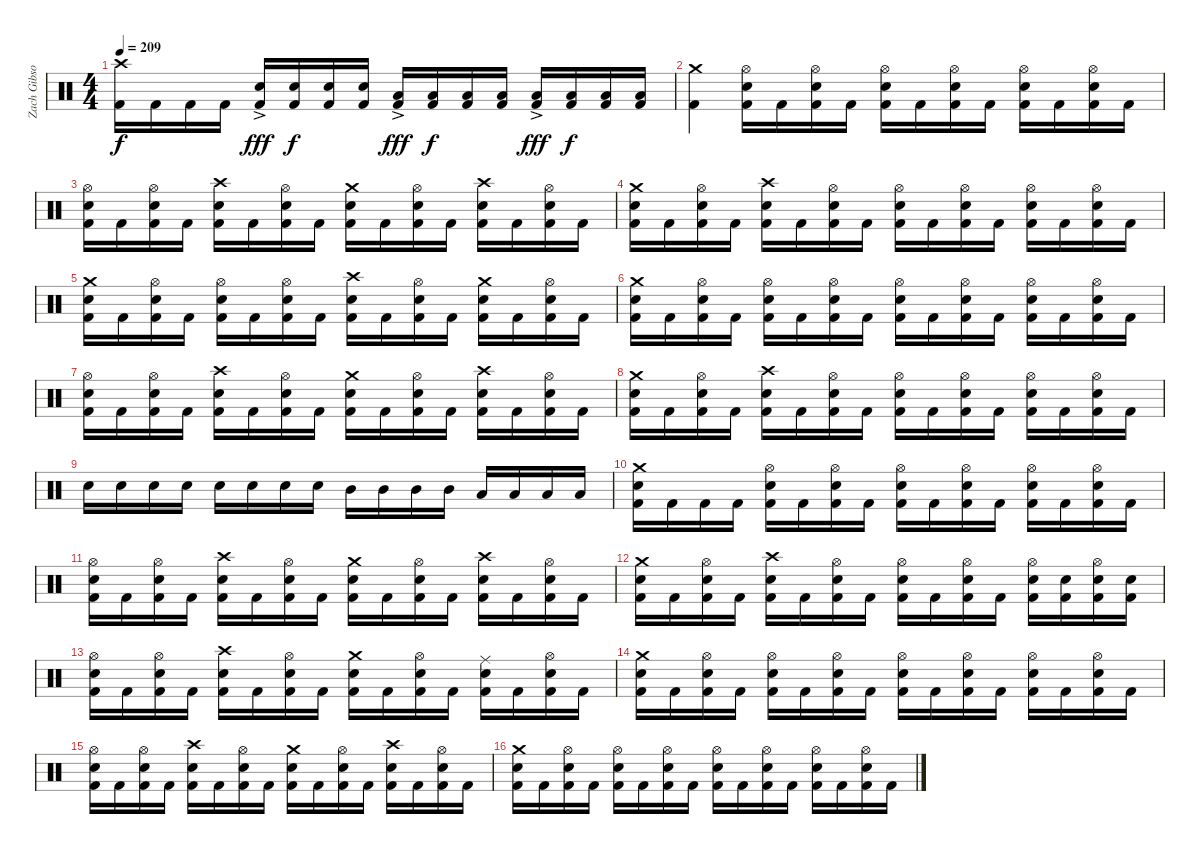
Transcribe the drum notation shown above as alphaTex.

\track ("Zach Gibson (Drums)" "Zach Gibso") {instrument percussion}
\staff {score}
\articulation defaults
\ts (4 4)
\tempo 209
\clef neutral
\ks c
("Crash high (hit)" "Kick (hit) 2").16{dy f} "Kick (hit) 2".16 "Kick (hit) 2".16 "Kick (hit) 2".16 ("Snare (hit) 2" "Kick (hit) 2"{ac}).16{dy fff} ("Snare (hit) 2" "Kick (hit) 2").16{dy f} ("Snare (hit) 2" "Kick (hit) 2").16 ("Snare (hit) 2" "Kick (hit) 2").16 ("Low Tom (hit)" "Kick (hit) 2"{ac}).16{dy fff} ("Low Tom (hit)" "Kick (hit) 2").16{dy f} ("Low Tom (hit)" "Kick (hit) 2").16 ("Low Tom (hit)" "Kick (hit) 2").16 ("Low Floor Tom (hit)" "Kick (hit) 2"{ac}).16{dy fff} ("Low Floor Tom (hit)" "Kick (hit) 2").16{dy f} ("Low Floor Tom (hit)" "Kick (hit) 2").16 ("Low Floor Tom (hit)" "Kick (hit) 2").16 |
("Crash medium (hit)" "Kick (hit) 2").4 ("Hi-Hat (open)" "Snare (hit) 2" "Kick (hit) 2").16 "Kick (hit) 2".16 ("Hi-Hat (open)" "Snare (hit) 2" "Kick (hit) 2").16 "Kick (hit) 2".16 ("Hi-Hat (open)" "Snare (hit) 2" "Kick (hit) 2").16 "Kick (hit) 2".16 ("Hi-Hat (open)" "Snare (hit) 2" "Kick (hit) 2").16 "Kick (hit) 2".16 ("Hi-Hat (open)" "Snare (hit) 2" "Kick (hit) 2").16 "Kick (hit) 2".16 ("Hi-Hat (open)" "Snare (hit) 2" "Kick (hit) 2").16 "Kick (hit) 2".16 |
("Hi-Hat (open)" "Snare (hit) 2" "Kick (hit) 2").16 "Kick (hit) 2".16 ("Hi-Hat (open)" "Snare (hit) 2" "Kick (hit) 2").16 "Kick (hit) 2".16 ("Crash high (hit)" "Snare (hit) 2" "Kick (hit) 2").16 "Kick (hit) 2".16 ("Hi-Hat (open)" "Snare (hit) 2" "Kick (hit) 2").16 "Kick (hit) 2".16 ("Crash medium (hit)" "Snare (hit) 2" "Kick (hit) 2").16 "Kick (hit) 2".16 ("Hi-Hat (open)" "Snare (hit) 2" "Kick (hit) 2").16 "Kick (hit) 2".16 ("Crash high (hit)" "Snare (hit) 2" "Kick (hit) 2").16 "Kick (hit) 2".16 ("Hi-Hat (open)" "Snare (hit) 2" "Kick (hit) 2").16 "Kick (hit) 2".16 |
("Crash medium (hit)" "Snare (hit) 2" "Kick (hit) 2").16 "Kick (hit) 2".16 ("Hi-Hat (open)" "Snare (hit) 2" "Kick (hit) 2").16 "Kick (hit) 2".16 ("Crash high (hit)" "Snare (hit) 2" "Kick (hit) 2").16 "Kick (hit) 2".16 ("Hi-Hat (open)" "Snare (hit) 2" "Kick (hit) 2").16 "Kick (hit) 2".16 ("Hi-Hat (open)" "Snare (hit) 2" "Kick (hit) 2").16 "Kick (hit) 2".16 ("Hi-Hat (open)" "Snare (hit) 2" "Kick (hit) 2").16 "Kick (hit) 2".16 ("Hi-Hat (open)" "Snare (hit) 2" "Kick (hit) 2").16 "Kick (hit) 2".16 ("Hi-Hat (open)" "Snare (hit) 2" "Kick (hit) 2").16 "Kick (hit) 2".16 |
("Crash medium (hit)" "Snare (hit) 2" "Kick (hit) 2").16 "Kick (hit) 2".16 ("Hi-Hat (open)" "Snare (hit) 2" "Kick (hit) 2").16 "Kick (hit) 2".16 ("Hi-Hat (open)" "Snare (hit) 2" "Kick (hit) 2").16 "Kick (hit) 2".16 ("Hi-Hat (open)" "Snare (hit) 2" "Kick (hit) 2").16 "Kick (hit) 2".16 ("Crash high (hit)" "Snare (hit) 2" "Kick (hit) 2").16 "Kick (hit) 2".16 ("Hi-Hat (open)" "Snare (hit) 2" "Kick (hit) 2").16 "Kick (hit) 2".16 ("Crash medium (hit)" "Snare (hit) 2" "Kick (hit) 2").16 "Kick (hit) 2".16 ("Hi-Hat (open)" "Snare (hit) 2" "Kick (hit) 2").16 "Kick (hit) 2".16 |
("Crash medium (hit)" "Snare (hit) 2" "Kick (hit) 2").16 "Kick (hit) 2".16 ("Hi-Hat (open)" "Snare (hit) 2" "Kick (hit) 2").16 "Kick (hit) 2".16 ("Hi-Hat (open)" "Snare (hit) 2" "Kick (hit) 2").16 "Kick (hit) 2".16 ("Hi-Hat (open)" "Snare (hit) 2" "Kick (hit) 2").16 "Kick (hit) 2".16 ("Hi-Hat (open)" "Snare (hit) 2" "Kick (hit) 2").16 "Kick (hit) 2".16 ("Hi-Hat (open)" "Snare (hit) 2" "Kick (hit) 2").16 "Kick (hit) 2".16 ("Hi-Hat (open)" "Snare (hit) 2" "Kick (hit) 2").16 "Kick (hit) 2".16 ("Hi-Hat (open)" "Snare (hit) 2" "Kick (hit) 2").16 "Kick (hit) 2".16 |
("Hi-Hat (open)" "Snare (hit) 2" "Kick (hit) 2").16 "Kick (hit) 2".16 ("Hi-Hat (open)" "Snare (hit) 2" "Kick (hit) 2").16 "Kick (hit) 2".16 ("Crash high (hit)" "Snare (hit) 2" "Kick (hit) 2").16 "Kick (hit) 2".16 ("Hi-Hat (open)" "Snare (hit) 2" "Kick (hit) 2").16 "Kick (hit) 2".16 ("Crash medium (hit)" "Snare (hit) 2" "Kick (hit) 2").16 "Kick (hit) 2".16 ("Hi-Hat (open)" "Snare (hit) 2" "Kick (hit) 2").16 "Kick (hit) 2".16 ("Crash high (hit)" "Snare (hit) 2" "Kick (hit) 2").16 "Kick (hit) 2".16 ("Hi-Hat (open)" "Snare (hit) 2" "Kick (hit) 2").16 "Kick (hit) 2".16 |
("Crash medium (hit)" "Snare (hit) 2" "Kick (hit) 2").16 "Kick (hit) 2".16 ("Hi-Hat (open)" "Snare (hit) 2" "Kick (hit) 2").16 "Kick (hit) 2".16 ("Crash high (hit)" "Snare (hit) 2" "Kick (hit) 2").16 "Kick (hit) 2".16 ("Hi-Hat (open)" "Snare (hit) 2" "Kick (hit) 2").16 "Kick (hit) 2".16 ("Hi-Hat (open)" "Snare (hit) 2" "Kick (hit) 2").16 "Kick (hit) 2".16 ("Hi-Hat (open)" "Snare (hit) 2" "Kick (hit) 2").16 "Kick (hit) 2".16 ("Hi-Hat (open)" "Snare (hit) 2" "Kick (hit) 2").16 "Kick (hit) 2".16 ("Hi-Hat (open)" "Snare (hit) 2" "Kick (hit) 2").16 "Kick (hit) 2".16 |
"Snare (hit) 2".16 "Snare (hit) 2".16 "Snare (hit) 2".16 "Snare (hit) 2".16 "Snare (hit) 2".16 "Snare (hit) 2".16 "Snare (hit) 2".16 "Snare (hit) 2".16 "Mid Tom (hit)".16 "Mid Tom (hit)".16 "Mid Tom (hit)".16 "Mid Tom (hit)".16 "Low Floor Tom (hit)".16 "Low Floor Tom (hit)".16 "Low Floor Tom (hit)".16 "Low Floor Tom (hit)".16 |
("Crash medium (hit)" "Snare (hit) 2" "Kick (hit) 2").16 "Kick (hit) 2".16 "Kick (hit) 2".16 "Kick (hit) 2".16 ("Hi-Hat (open)" "Snare (hit) 2" "Kick (hit) 2").16 "Kick (hit) 2".16 ("Hi-Hat (open)" "Snare (hit) 2" "Kick (hit) 2").16 "Kick (hit) 2".16 ("Hi-Hat (open)" "Snare (hit) 2" "Kick (hit) 2").16 "Kick (hit) 2".16 ("Hi-Hat (open)" "Snare (hit) 2" "Kick (hit) 2").16 "Kick (hit) 2".16 ("Hi-Hat (open)" "Snare (hit) 2" "Kick (hit) 2").16 "Kick (hit) 2".16 ("Hi-Hat (open)" "Snare (hit) 2" "Kick (hit) 2").16 "Kick (hit) 2".16 |
("Hi-Hat (open)" "Snare (hit) 2" "Kick (hit) 2").16 "Kick (hit) 2".16 ("Hi-Hat (open)" "Snare (hit) 2" "Kick (hit) 2").16 "Kick (hit) 2".16 ("Crash high (hit)" "Snare (hit) 2" "Kick (hit) 2").16 "Kick (hit) 2".16 ("Hi-Hat (open)" "Snare (hit) 2" "Kick (hit) 2").16 "Kick (hit) 2".16 ("Crash medium (hit)" "Snare (hit) 2" "Kick (hit) 2").16 "Kick (hit) 2".16 ("Hi-Hat (open)" "Snare (hit) 2" "Kick (hit) 2").16 "Kick (hit) 2".16 ("Crash high (hit)" "Snare (hit) 2" "Kick (hit) 2").16 "Kick (hit) 2".16 ("Hi-Hat (open)" "Snare (hit) 2" "Kick (hit) 2").16 "Kick (hit) 2".16 |
("Crash medium (hit)" "Snare (hit) 2" "Kick (hit) 2").16 "Kick (hit) 2".16 ("Hi-Hat (open)" "Snare (hit) 2" "Kick (hit) 2").16 "Kick (hit) 2".16 ("Crash high (hit)" "Snare (hit) 2" "Kick (hit) 2").16 "Kick (hit) 2".16 ("Hi-Hat (open)" "Snare (hit) 2" "Kick (hit) 2").16 "Kick (hit) 2".16 ("Hi-Hat (open)" "Snare (hit) 2" "Kick (hit) 2").16 "Kick (hit) 2".16 ("Hi-Hat (open)" "Snare (hit) 2" "Kick (hit) 2").16 "Kick (hit) 2".16 ("Hi-Hat (open)" "Snare (hit) 2" "Kick (hit) 2").16 ("Snare (hit) 2" "Kick (hit) 2").16 ("Hi-Hat (open)" "Snare (hit) 2" "Kick (hit) 2").16 ("Snare (hit) 2" "Kick (hit) 2").16 |
("Hi-Hat (open)" "Snare (hit) 2" "Kick (hit) 2").16 "Kick (hit) 2".16 ("Hi-Hat (open)" "Snare (hit) 2" "Kick (hit) 2").16 "Kick (hit) 2".16 ("Crash high (hit)" "Snare (hit) 2" "Kick (hit) 2").16 "Kick (hit) 2".16 ("Hi-Hat (open)" "Snare (hit) 2" "Kick (hit) 2").16 "Kick (hit) 2".16 ("Crash medium (hit)" "Snare (hit) 2" "Kick (hit) 2").16 "Kick (hit) 2".16 ("Hi-Hat (open)" "Snare (hit) 2" "Kick (hit) 2").16 "Kick (hit) 2".16 ("Ride (middle)" "Snare (hit) 2" "Kick (hit) 2").16 "Kick (hit) 2".16 ("Hi-Hat (open)" "Snare (hit) 2" "Kick (hit) 2").16 "Kick (hit) 2".16 |
("Crash medium (hit)" "Snare (hit) 2" "Kick (hit) 2").16 "Kick (hit) 2".16 ("Hi-Hat (open)" "Snare (hit) 2" "Kick (hit) 2").16 "Kick (hit) 2".16 ("Hi-Hat (open)" "Snare (hit) 2" "Kick (hit) 2").16 "Kick (hit) 2".16 ("Hi-Hat (open)" "Snare (hit) 2" "Kick (hit) 2").16 "Kick (hit) 2".16 ("Hi-Hat (open)" "Snare (hit) 2" "Kick (hit) 2").16 "Kick (hit) 2".16 ("Hi-Hat (open)" "Snare (hit) 2" "Kick (hit) 2").16 "Kick (hit) 2".16 ("Hi-Hat (open)" "Snare (hit) 2" "Kick (hit) 2").16 "Kick (hit) 2".16 ("Hi-Hat (open)" "Snare (hit) 2" "Kick (hit) 2").16 "Kick (hit) 2".16 |
("Hi-Hat (open)" "Snare (hit) 2" "Kick (hit) 2").16 "Kick (hit) 2".16 ("Hi-Hat (open)" "Snare (hit) 2" "Kick (hit) 2").16 "Kick (hit) 2".16 ("Crash high (hit)" "Snare (hit) 2" "Kick (hit) 2").16 "Kick (hit) 2".16 ("Hi-Hat (open)" "Snare (hit) 2" "Kick (hit) 2").16 "Kick (hit) 2".16 ("Crash medium (hit)" "Snare (hit) 2" "Kick (hit) 2").16 "Kick (hit) 2".16 ("Hi-Hat (open)" "Snare (hit) 2" "Kick (hit) 2").16 "Kick (hit) 2".16 ("Crash high (hit)" "Snare (hit) 2" "Kick (hit) 2").16 "Kick (hit) 2".16 ("Hi-Hat (open)" "Snare (hit) 2" "Kick (hit) 2").16 "Kick (hit) 2".16 |
("Crash medium (hit)" "Snare (hit) 2" "Kick (hit) 2").16 "Kick (hit) 2".16 ("Hi-Hat (open)" "Snare (hit) 2" "Kick (hit) 2").16 "Kick (hit) 2".16 ("Hi-Hat (open)" "Snare (hit) 2" "Kick (hit) 2").16 "Kick (hit) 2".16 ("Hi-Hat (open)" "Snare (hit) 2" "Kick (hit) 2").16 "Kick (hit) 2".16 ("Hi-Hat (open)" "Snare (hit) 2" "Kick (hit) 2").16 "Kick (hit) 2".16 ("Hi-Hat (open)" "Snare (hit) 2" "Kick (hit) 2").16 "Kick (hit) 2".16 ("Hi-Hat (open)" "Snare (hit) 2" "Kick (hit) 2").16 "Kick (hit) 2".16 ("Hi-Hat (open)" "Snare (hit) 2" "Kick (hit) 2").16 "Kick (hit) 2".16
